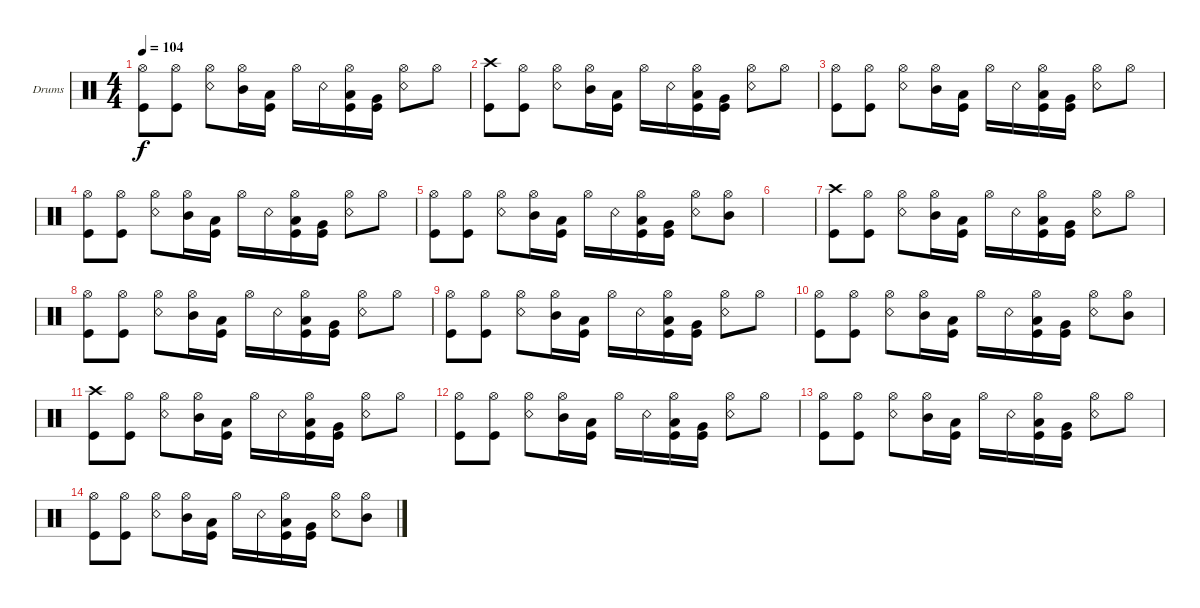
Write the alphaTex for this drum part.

\defaultSystemsLayout 4
\bracketExtendMode groupsimilarinstruments
\firstSystemTrackNameOrientation horizontal
\otherSystemsTrackNameOrientation horizontal
\track ("Drumkit" "Drums") {instrument percussion}
\staff {score}
\articulation defaults
\ts (4 4)
\tempo 104
\clef neutral
\ks c
("Kick (hit)" "Hi-Hat (open)").8{dy f} ("Kick (hit)" "Hi-Hat (open)").8 ("Snare (rim shot)" "Hi-Hat (open)").8 ("Mid Tom (hit)" "Hi-Hat (open)").16 ("Low Tom (hit)" "Kick (hit)").16 "Hi-Hat (open)".16 "Snare (rim shot)".16 ("Low Tom (hit)" "Kick (hit)" "Hi-Hat (open)").16 ("Very Low Tom (hit)" "Kick (hit)").16 ("Snare (rim shot)" "Hi-Hat (open)").8 "Hi-Hat (open)".8 |
("Kick (hit)" "Crash high (hit)").8 ("Kick (hit)" "Hi-Hat (open)").8 ("Snare (rim shot)" "Hi-Hat (open)").8 ("Mid Tom (hit)" "Hi-Hat (open)").16 ("Low Tom (hit)" "Kick (hit)").16 "Hi-Hat (open)".16 "Snare (rim shot)".16 ("Low Tom (hit)" "Kick (hit)" "Hi-Hat (open)").16 ("Very Low Tom (hit)" "Kick (hit)").16 ("Snare (rim shot)" "Hi-Hat (open)").8 "Hi-Hat (open)".8 |
("Kick (hit)" "Hi-Hat (open)").8 ("Kick (hit)" "Hi-Hat (open)").8 ("Snare (rim shot)" "Hi-Hat (open)").8 ("Mid Tom (hit)" "Hi-Hat (open)").16 ("Low Tom (hit)" "Kick (hit)").16 "Hi-Hat (open)".16 "Snare (rim shot)".16 ("Low Tom (hit)" "Kick (hit)" "Hi-Hat (open)").16 ("Very Low Tom (hit)" "Kick (hit)").16 ("Snare (rim shot)" "Hi-Hat (open)").8 "Hi-Hat (open)".8 |
("Kick (hit)" "Hi-Hat (open)").8 ("Kick (hit)" "Hi-Hat (open)").8 ("Snare (rim shot)" "Hi-Hat (open)").8 ("Mid Tom (hit)" "Hi-Hat (open)").16 ("Low Tom (hit)" "Kick (hit)").16 "Hi-Hat (open)".16 "Snare (rim shot)".16 ("Low Tom (hit)" "Kick (hit)" "Hi-Hat (open)").16 ("Very Low Tom (hit)" "Kick (hit)").16 ("Snare (rim shot)" "Hi-Hat (open)").8 "Hi-Hat (open)".8 |
("Kick (hit)" "Hi-Hat (open)").8 ("Kick (hit)" "Hi-Hat (open)").8 ("Snare (rim shot)" "Hi-Hat (open)").8 ("Mid Tom (hit)" "Hi-Hat (open)").16 ("Low Tom (hit)" "Kick (hit)").16 "Hi-Hat (open)".16 "Snare (rim shot)".16 ("Low Tom (hit)" "Kick (hit)" "Hi-Hat (open)").16 ("Very Low Tom (hit)" "Kick (hit)").16 ("Hi-Hat (open)" "Snare (rim shot)").8 ("Hi-Hat (open)" "Mid Tom (hit)").8 |
|
("Kick (hit)" "Crash high (hit)").8 ("Kick (hit)" "Hi-Hat (open)").8 ("Snare (rim shot)" "Hi-Hat (open)").8 ("Mid Tom (hit)" "Hi-Hat (open)").16 ("Low Tom (hit)" "Kick (hit)").16 "Hi-Hat (open)".16 "Snare (rim shot)".16 ("Low Tom (hit)" "Kick (hit)" "Hi-Hat (open)").16 ("Very Low Tom (hit)" "Kick (hit)").16 ("Snare (rim shot)" "Hi-Hat (open)").8 "Hi-Hat (open)".8 |
("Kick (hit)" "Hi-Hat (open)").8 ("Kick (hit)" "Hi-Hat (open)").8 ("Snare (rim shot)" "Hi-Hat (open)").8 ("Mid Tom (hit)" "Hi-Hat (open)").16 ("Low Tom (hit)" "Kick (hit)").16 "Hi-Hat (open)".16 "Snare (rim shot)".16 ("Low Tom (hit)" "Kick (hit)" "Hi-Hat (open)").16 ("Very Low Tom (hit)" "Kick (hit)").16 ("Snare (rim shot)" "Hi-Hat (open)").8 "Hi-Hat (open)".8 |
("Kick (hit)" "Hi-Hat (open)").8 ("Kick (hit)" "Hi-Hat (open)").8 ("Snare (rim shot)" "Hi-Hat (open)").8 ("Mid Tom (hit)" "Hi-Hat (open)").16 ("Low Tom (hit)" "Kick (hit)").16 "Hi-Hat (open)".16 "Snare (rim shot)".16 ("Low Tom (hit)" "Kick (hit)" "Hi-Hat (open)").16 ("Very Low Tom (hit)" "Kick (hit)").16 ("Snare (rim shot)" "Hi-Hat (open)").8 "Hi-Hat (open)".8 |
("Kick (hit)" "Hi-Hat (open)").8 ("Kick (hit)" "Hi-Hat (open)").8 ("Snare (rim shot)" "Hi-Hat (open)").8 ("Mid Tom (hit)" "Hi-Hat (open)").16 ("Low Tom (hit)" "Kick (hit)").16 "Hi-Hat (open)".16 "Snare (rim shot)".16 ("Low Tom (hit)" "Kick (hit)" "Hi-Hat (open)").16 ("Very Low Tom (hit)" "Kick (hit)").16 ("Hi-Hat (open)" "Snare (rim shot)").8 ("Hi-Hat (open)" "Mid Tom (hit)").8 |
("Kick (hit)" "Crash high (hit)").8 ("Kick (hit)" "Hi-Hat (open)").8 ("Snare (rim shot)" "Hi-Hat (open)").8 ("Mid Tom (hit)" "Hi-Hat (open)").16 ("Low Tom (hit)" "Kick (hit)").16 "Hi-Hat (open)".16 "Snare (rim shot)".16 ("Low Tom (hit)" "Kick (hit)" "Hi-Hat (open)").16 ("Very Low Tom (hit)" "Kick (hit)").16 ("Snare (rim shot)" "Hi-Hat (open)").8 "Hi-Hat (open)".8 |
("Kick (hit)" "Hi-Hat (open)").8 ("Kick (hit)" "Hi-Hat (open)").8 ("Snare (rim shot)" "Hi-Hat (open)").8 ("Mid Tom (hit)" "Hi-Hat (open)").16 ("Low Tom (hit)" "Kick (hit)").16 "Hi-Hat (open)".16 "Snare (rim shot)".16 ("Low Tom (hit)" "Kick (hit)" "Hi-Hat (open)").16 ("Very Low Tom (hit)" "Kick (hit)").16 ("Snare (rim shot)" "Hi-Hat (open)").8 "Hi-Hat (open)".8 |
("Kick (hit)" "Hi-Hat (open)").8 ("Kick (hit)" "Hi-Hat (open)").8 ("Snare (rim shot)" "Hi-Hat (open)").8 ("Mid Tom (hit)" "Hi-Hat (open)").16 ("Low Tom (hit)" "Kick (hit)").16 "Hi-Hat (open)".16 "Snare (rim shot)".16 ("Low Tom (hit)" "Kick (hit)" "Hi-Hat (open)").16 ("Very Low Tom (hit)" "Kick (hit)").16 ("Snare (rim shot)" "Hi-Hat (open)").8 "Hi-Hat (open)".8 |
("Kick (hit)" "Hi-Hat (open)").8 ("Kick (hit)" "Hi-Hat (open)").8 ("Snare (rim shot)" "Hi-Hat (open)").8 ("Mid Tom (hit)" "Hi-Hat (open)").16 ("Low Tom (hit)" "Kick (hit)").16 "Hi-Hat (open)".16 "Snare (rim shot)".16 ("Low Tom (hit)" "Kick (hit)" "Hi-Hat (open)").16 ("Very Low Tom (hit)" "Kick (hit)").16 ("Hi-Hat (open)" "Snare (rim shot)").8 ("Hi-Hat (open)" "Mid Tom (hit)").8
